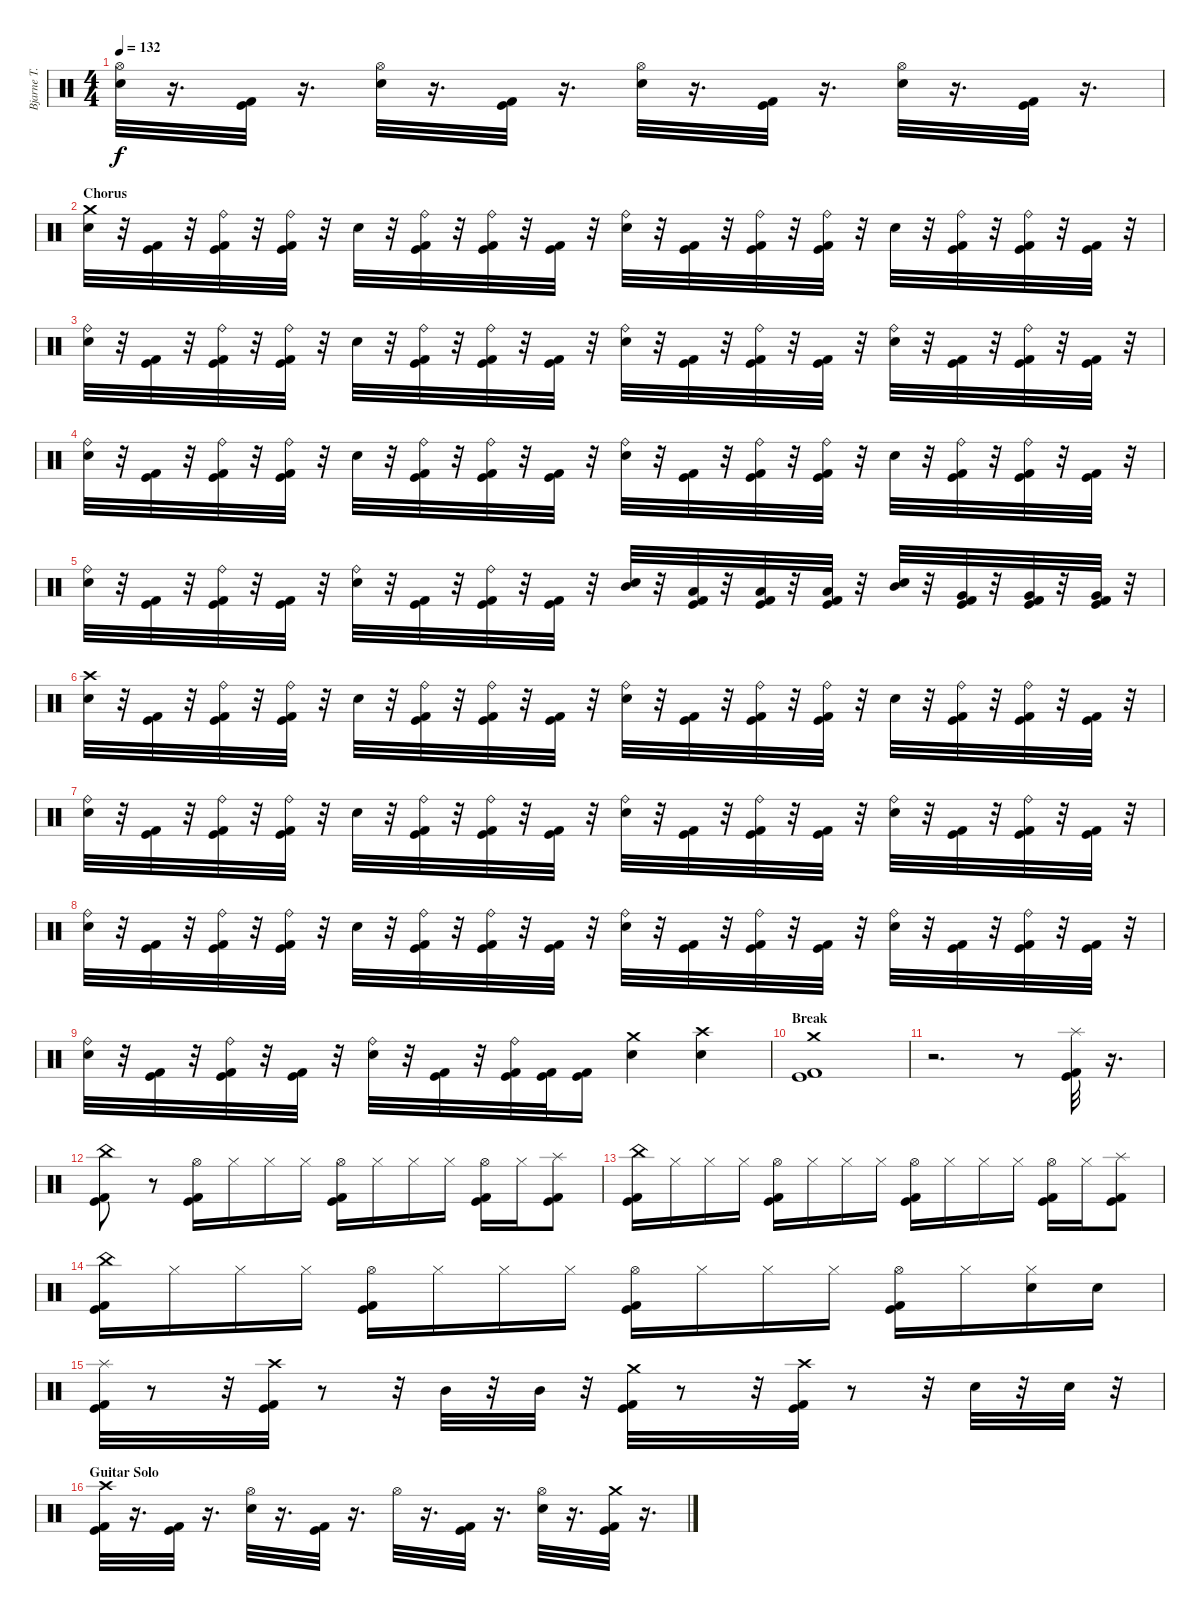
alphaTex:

\track ("Bjarne T. Holme" "Bjarne T. ") {instrument percussion}
\staff {score}
\articulation defaults
\ts (4 4)
\tempo 132
\clef neutral
\ks c
("Hi-Hat (open)" "Snare (hit) 2").32{dy f} r.16{d} ("Kick (hit)" "Kick (hit) 2").32 r.16{d} ("Hi-Hat (open)" "Snare (hit) 2").32 r.16{d} ("Kick (hit)" "Kick (hit) 2").32 r.16{d} ("Hi-Hat (open)" "Snare (hit) 2").32 r.16{d} ("Kick (hit)" "Kick (hit) 2").32 r.16{d} ("Hi-Hat (open)" "Snare (hit) 2").32 r.16{d} ("Kick (hit)" "Kick (hit) 2").32 r.16{d} |
\section ("" "Chorus")
("Crash medium (hit)" "Snare (hit) 2").32 r.32 ("Kick (hit)" "Kick (hit) 2").32 r.32 ("Ride (bell)" "Kick (hit)" "Kick (hit) 2").32 r.32 ("Ride (bell)" "Kick (hit)" "Kick (hit) 2").32 r.32 "Snare (hit) 2".32 r.32 ("Ride (bell)" "Kick (hit)" "Kick (hit) 2").32 r.32 ("Ride (bell)" "Kick (hit)" "Kick (hit) 2").32 r.32 ("Kick (hit)" "Kick (hit) 2").32 r.32 ("Ride (bell)" "Snare (hit) 2").32 r.32 ("Kick (hit)" "Kick (hit) 2").32 r.32 ("Ride (bell)" "Kick (hit)" "Kick (hit) 2").32 r.32 ("Ride (bell)" "Kick (hit)" "Kick (hit) 2").32 r.32 "Snare (hit) 2".32 r.32 ("Ride (bell)" "Kick (hit)" "Kick (hit) 2").32 r.32 ("Ride (bell)" "Kick (hit)" "Kick (hit) 2").32 r.32 ("Kick (hit)" "Kick (hit) 2").32 r.32 |
("Ride (bell)" "Snare (hit) 2").32 r.32 ("Kick (hit)" "Kick (hit) 2").32 r.32 ("Ride (bell)" "Kick (hit)" "Kick (hit) 2").32 r.32 ("Ride (bell)" "Kick (hit)" "Kick (hit) 2").32 r.32 "Snare (hit) 2".32 r.32 ("Ride (bell)" "Kick (hit)" "Kick (hit) 2").32 r.32 ("Ride (bell)" "Kick (hit)" "Kick (hit) 2").32 r.32 ("Kick (hit)" "Kick (hit) 2").32 r.32 ("Ride (bell)" "Snare (hit) 2").32 r.32 ("Kick (hit)" "Kick (hit) 2").32 r.32 ("Ride (bell)" "Kick (hit)" "Kick (hit) 2").32 r.32 ("Kick (hit)" "Kick (hit) 2").32 r.32 ("Ride (bell)" "Snare (hit) 2").32 r.32 ("Kick (hit)" "Kick (hit) 2").32 r.32 ("Ride (bell)" "Kick (hit)" "Kick (hit) 2").32 r.32 ("Kick (hit)" "Kick (hit) 2").32 r.32 |
("Ride (bell)" "Snare (hit) 2").32 r.32 ("Kick (hit)" "Kick (hit) 2").32 r.32 ("Ride (bell)" "Kick (hit)" "Kick (hit) 2").32 r.32 ("Ride (bell)" "Kick (hit)" "Kick (hit) 2").32 r.32 "Snare (hit) 2".32 r.32 ("Ride (bell)" "Kick (hit)" "Kick (hit) 2").32 r.32 ("Ride (bell)" "Kick (hit)" "Kick (hit) 2").32 r.32 ("Kick (hit)" "Kick (hit) 2").32 r.32 ("Ride (bell)" "Snare (hit) 2").32 r.32 ("Kick (hit)" "Kick (hit) 2").32 r.32 ("Ride (bell)" "Kick (hit)" "Kick (hit) 2").32 r.32 ("Ride (bell)" "Kick (hit)" "Kick (hit) 2").32 r.32 "Snare (hit) 2".32 r.32 ("Ride (bell)" "Kick (hit)" "Kick (hit) 2").32 r.32 ("Ride (bell)" "Kick (hit)" "Kick (hit) 2").32 r.32 ("Kick (hit)" "Kick (hit) 2").32 r.32 |
("Ride (bell)" "Snare (hit) 2").32 r.32 ("Kick (hit)" "Kick (hit) 2").32 r.32 ("Ride (bell)" "Kick (hit)" "Kick (hit) 2").32 r.32 ("Kick (hit)" "Kick (hit) 2").32 r.32 ("Ride (bell)" "Snare (hit) 2").32 r.32 ("Kick (hit)" "Kick (hit) 2").32 r.32 ("Ride (bell)" "Kick (hit)" "Kick (hit) 2").32 r.32 ("Kick (hit)" "Kick (hit) 2").32 r.32 ("Mid Tom (hit)" "Snare (hit) 2").32 r.32 ("Low Tom (hit)" "Kick (hit)" "Kick (hit) 2").32 r.32 ("Low Tom (hit)" "Kick (hit)" "Kick (hit) 2").32 r.32 ("Low Tom (hit)" "Kick (hit)" "Kick (hit) 2").32 r.32 ("Mid Tom (hit)" "Snare (hit) 2").32 r.32 ("Very Low Tom (hit)" "Kick (hit)" "Kick (hit) 2").32 r.32 ("Very Low Tom (hit)" "Kick (hit)" "Kick (hit) 2").32 r.32 ("Very Low Tom (hit)" "Kick (hit)" "Kick (hit) 2").32 r.32 |
("Crash high (hit)" "Snare (hit) 2").32 r.32 ("Kick (hit)" "Kick (hit) 2").32 r.32 ("Ride (bell)" "Kick (hit)" "Kick (hit) 2").32 r.32 ("Ride (bell)" "Kick (hit)" "Kick (hit) 2").32 r.32 "Snare (hit) 2".32 r.32 ("Ride (bell)" "Kick (hit)" "Kick (hit) 2").32 r.32 ("Ride (bell)" "Kick (hit)" "Kick (hit) 2").32 r.32 ("Kick (hit)" "Kick (hit) 2").32 r.32 ("Ride (bell)" "Snare (hit) 2").32 r.32 ("Kick (hit)" "Kick (hit) 2").32 r.32 ("Ride (bell)" "Kick (hit)" "Kick (hit) 2").32 r.32 ("Ride (bell)" "Kick (hit)" "Kick (hit) 2").32 r.32 "Snare (hit) 2".32 r.32 ("Ride (bell)" "Kick (hit)" "Kick (hit) 2").32 r.32 ("Ride (bell)" "Kick (hit)" "Kick (hit) 2").32 r.32 ("Kick (hit)" "Kick (hit) 2").32 r.32 |
("Ride (bell)" "Snare (hit) 2").32 r.32 ("Kick (hit)" "Kick (hit) 2").32 r.32 ("Ride (bell)" "Kick (hit)" "Kick (hit) 2").32 r.32 ("Ride (bell)" "Kick (hit)" "Kick (hit) 2").32 r.32 "Snare (hit) 2".32 r.32 ("Ride (bell)" "Kick (hit)" "Kick (hit) 2").32 r.32 ("Ride (bell)" "Kick (hit)" "Kick (hit) 2").32 r.32 ("Kick (hit)" "Kick (hit) 2").32 r.32 ("Ride (bell)" "Snare (hit) 2").32 r.32 ("Kick (hit)" "Kick (hit) 2").32 r.32 ("Ride (bell)" "Kick (hit)" "Kick (hit) 2").32 r.32 ("Kick (hit)" "Kick (hit) 2").32 r.32 ("Ride (bell)" "Snare (hit) 2").32 r.32 ("Kick (hit)" "Kick (hit) 2").32 r.32 ("Ride (bell)" "Kick (hit)" "Kick (hit) 2").32 r.32 ("Kick (hit)" "Kick (hit) 2").32 r.32 |
("Ride (bell)" "Snare (hit) 2").32 r.32 ("Kick (hit)" "Kick (hit) 2").32 r.32 ("Ride (bell)" "Kick (hit)" "Kick (hit) 2").32 r.32 ("Ride (bell)" "Kick (hit)" "Kick (hit) 2").32 r.32 "Snare (hit) 2".32 r.32 ("Ride (bell)" "Kick (hit)" "Kick (hit) 2").32 r.32 ("Ride (bell)" "Kick (hit)" "Kick (hit) 2").32 r.32 ("Kick (hit)" "Kick (hit) 2").32 r.32 ("Ride (bell)" "Snare (hit) 2").32 r.32 ("Kick (hit)" "Kick (hit) 2").32 r.32 ("Ride (bell)" "Kick (hit)" "Kick (hit) 2").32 r.32 ("Kick (hit)" "Kick (hit) 2").32 r.32 ("Ride (bell)" "Snare (hit) 2").32 r.32 ("Kick (hit)" "Kick (hit) 2").32 r.32 ("Ride (bell)" "Kick (hit)" "Kick (hit) 2").32 r.32 ("Kick (hit)" "Kick (hit) 2").32 r.32 |
("Ride (bell)" "Snare (hit) 2").32 r.32 ("Kick (hit)" "Kick (hit) 2").32 r.32 ("Ride (bell)" "Kick (hit)" "Kick (hit) 2").32 r.32 ("Kick (hit)" "Kick (hit) 2").32 r.32 ("Ride (bell)" "Snare (hit) 2").32 r.32 ("Kick (hit)" "Kick (hit) 2").32 r.32 ("Ride (bell)" "Kick (hit)" "Kick (hit) 2").32 ("Kick (hit)" "Kick (hit) 2").32 ("Kick (hit)" "Kick (hit) 2").16 ("Crash medium (hit)" "Snare (hit) 2").4 ("Crash high (hit)" "Snare (hit) 2").4 |
\section ("" "Break")
("Crash medium (hit)" "Kick (hit)" "Kick (hit) 2").1 |
r.2{d} r.8 ("Splash (hit)" "Kick (hit)" "Kick (hit) 2").32 r.16{d} |
("China (hit)" "Kick (hit)" "Kick (hit) 2").8 r.8 ("Hi-Hat (open)" "Kick (hit)" "Kick (hit) 2").16 "Hi-Hat (closed)".16 "Hi-Hat (closed)".16 "Hi-Hat (closed)".16 ("Hi-Hat (open)" "Kick (hit)" "Kick (hit) 2").16 "Hi-Hat (closed)".16 "Hi-Hat (closed)".16 "Hi-Hat (closed)".16 ("Hi-Hat (open)" "Kick (hit)" "Kick (hit) 2").16 "Hi-Hat (closed)".16 ("Splash (hit)" "Kick (hit)" "Kick (hit) 2").8 |
("China (hit)" "Kick (hit)" "Kick (hit) 2").16 "Hi-Hat (closed)".16 "Hi-Hat (closed)".16 "Hi-Hat (closed)".16 ("Hi-Hat (open)" "Kick (hit)" "Kick (hit) 2").16 "Hi-Hat (closed)".16 "Hi-Hat (closed)".16 "Hi-Hat (closed)".16 ("Hi-Hat (open)" "Kick (hit)" "Kick (hit) 2").16 "Hi-Hat (closed)".16 "Hi-Hat (closed)".16 "Hi-Hat (closed)".16 ("Hi-Hat (open)" "Kick (hit)" "Kick (hit) 2").16 "Hi-Hat (closed)".16 ("Splash (hit)" "Kick (hit)" "Kick (hit) 2").8 |
("China (hit)" "Kick (hit)" "Kick (hit) 2").16 "Hi-Hat (closed)".16 "Hi-Hat (closed)".16 "Hi-Hat (closed)".16 ("Hi-Hat (open)" "Kick (hit)" "Kick (hit) 2").16 "Hi-Hat (closed)".16 "Hi-Hat (closed)".16 "Hi-Hat (closed)".16 ("Hi-Hat (open)" "Kick (hit)" "Kick (hit) 2").16 "Hi-Hat (closed)".16 "Hi-Hat (closed)".16 "Hi-Hat (closed)".16 ("Hi-Hat (open)" "Kick (hit)" "Kick (hit) 2").16 "Hi-Hat (closed)".16 ("Hi-Hat (closed)" "Snare (hit) 2").16 "Snare (hit) 2".16 |
("Splash (hit)" "Kick (hit)" "Kick (hit) 2").32 r.8 r.32 ("Crash high (hit)" "Kick (hit)" "Kick (hit) 2").32 r.8 r.32 "Mid Tom (hit)".32 r.32 "Mid Tom (hit)".32 r.32 ("Crash medium (hit)" "Kick (hit)" "Kick (hit) 2").32 r.8 r.32 ("Crash high (hit)" "Kick (hit)" "Kick (hit) 2").32 r.8 r.32 "Snare (hit) 2".32 r.32 "Snare (hit) 2".32 r.32 |
\section ("" "Guitar Solo")
("Crash high (hit)" "Kick (hit)" "Kick (hit) 2").32 r.16{d} ("Kick (hit)" "Kick (hit) 2").32 r.16{d} ("Hi-Hat (open)" "Snare (hit) 2").32 r.16{d} ("Kick (hit)" "Kick (hit) 2").32 r.16{d} "Hi-Hat (open)".32 r.16{d} ("Kick (hit)" "Kick (hit) 2").32 r.16{d} ("Hi-Hat (open)" "Snare (hit) 2").32 r.16{d} ("Crash medium (hit)" "Kick (hit)" "Kick (hit) 2").32 r.16{d}
